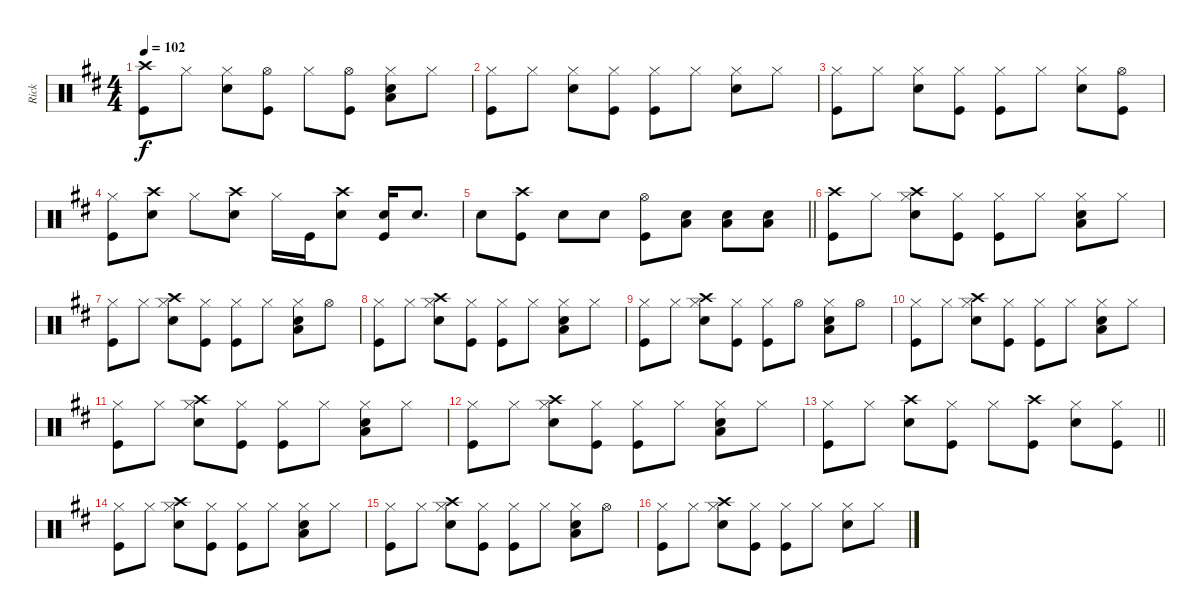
\track ("Rick" "Rick") {instrument percussion}
\staff {score}
\articulation defaults
\ts (4 4)
\tempo 102
\clef neutral
\ks d
("Crash high (hit)" "Kick (hit)").8{dy f} "Hi-Hat (closed)".8 ("Hi-Hat (closed)" "Snare (hit) 2").8 ("Hi-Hat (open)" "Kick (hit)").8 "Hi-Hat (closed)".8 ("Hi-Hat (open)" "Kick (hit)").8 ("Hi-Hat (closed)" "Snare (hit) 2" "Low Tom (hit)").8 "Hi-Hat (closed)".8 |
("Hi-Hat (closed)" "Kick (hit)").8 "Hi-Hat (closed)".8 ("Hi-Hat (closed)" "Snare (hit) 2").8 ("Hi-Hat (closed)" "Kick (hit)").8 ("Hi-Hat (closed)" "Kick (hit)").8 "Hi-Hat (closed)".8 ("Hi-Hat (closed)" "Snare (hit) 2").8 "Hi-Hat (closed)".8 |
("Hi-Hat (closed)" "Kick (hit)").8 "Hi-Hat (closed)".8 ("Hi-Hat (closed)" "Snare (hit) 2").8 ("Hi-Hat (closed)" "Kick (hit)").8 ("Hi-Hat (closed)" "Kick (hit)").8 "Hi-Hat (closed)".8 ("Hi-Hat (closed)" "Snare (hit) 2").8 ("Hi-Hat (open)" "Kick (hit)").8 |
("Hi-Hat (closed)" "Kick (hit)").8 ("Crash high (hit)" "Snare (hit) 2").8 "Hi-Hat (closed)".8 ("Crash high (hit)" "Snare (hit) 2").8 "Hi-Hat (closed)".16 "Kick (hit)".16 ("Crash high (hit)" "Snare (hit) 2").8 ("Snare (hit) 2" "Kick (hit)").16 "Snare (hit) 2".8{d} |
\barLineRight lightlight "Snare (hit) 2".8
("Crash high (hit)" "Kick (hit)").8 "Snare (hit) 2".8 "Snare (hit) 2".8 ("Hi-Hat (open)" "Kick (hit)").8 ("Snare (hit) 2" "Low Tom (hit)").8 ("Snare (hit) 2" "Low Tom (hit)").8 ("Snare (hit) 2" "Low Tom (hit)").8 |
("Crash high (hit)" "Kick (hit)").8 "Hi-Hat (closed)".8 ("Crash high (hit)" "Hi-Hat (closed)" "Snare (hit) 2").8 ("Hi-Hat (closed)" "Kick (hit)").8 ("Hi-Hat (closed)" "Kick (hit)").8 "Hi-Hat (closed)".8 ("Hi-Hat (closed)" "Snare (hit) 2" "Low Tom (hit)").8 "Hi-Hat (closed)".8 |
("Hi-Hat (closed)" "Kick (hit)").8 "Hi-Hat (closed)".8 ("Crash high (hit)" "Hi-Hat (closed)" "Snare (hit) 2").8 ("Hi-Hat (closed)" "Kick (hit)").8 ("Hi-Hat (closed)" "Kick (hit)").8 "Hi-Hat (closed)".8 ("Hi-Hat (closed)" "Snare (hit) 2" "Low Tom (hit)").8 "Hi-Hat (open)".8 |
("Hi-Hat (closed)" "Kick (hit)").8 "Hi-Hat (closed)".8 ("Crash high (hit)" "Hi-Hat (closed)" "Snare (hit) 2").8 ("Hi-Hat (closed)" "Kick (hit)").8 ("Hi-Hat (closed)" "Kick (hit)").8 "Hi-Hat (closed)".8 ("Hi-Hat (closed)" "Snare (hit) 2" "Low Tom (hit)").8 "Hi-Hat (closed)".8 |
("Hi-Hat (closed)" "Kick (hit)").8 "Hi-Hat (closed)".8 ("Crash high (hit)" "Hi-Hat (closed)" "Snare (hit) 2").8 ("Hi-Hat (closed)" "Kick (hit)").8 ("Hi-Hat (closed)" "Kick (hit)").8 "Hi-Hat (open)".8 ("Hi-Hat (closed)" "Snare (hit) 2" "Low Tom (hit)").8 "Hi-Hat (open)".8 |
("Hi-Hat (closed)" "Kick (hit)").8 "Hi-Hat (closed)".8 ("Crash high (hit)" "Hi-Hat (closed)" "Snare (hit) 2").8 ("Hi-Hat (closed)" "Kick (hit)").8 ("Hi-Hat (closed)" "Kick (hit)").8 "Hi-Hat (closed)".8 ("Hi-Hat (closed)" "Snare (hit) 2" "Low Tom (hit)").8 "Hi-Hat (closed)".8 |
("Hi-Hat (closed)" "Kick (hit)").8 "Hi-Hat (closed)".8 ("Crash high (hit)" "Hi-Hat (closed)" "Snare (hit) 2").8 ("Hi-Hat (closed)" "Kick (hit)").8 ("Hi-Hat (closed)" "Kick (hit)").8 "Hi-Hat (closed)".8 ("Hi-Hat (closed)" "Snare (hit) 2" "Low Tom (hit)").8 "Hi-Hat (closed)".8 |
("Hi-Hat (closed)" "Kick (hit)").8 "Hi-Hat (closed)".8 ("Crash high (hit)" "Hi-Hat (closed)" "Snare (hit) 2").8 ("Hi-Hat (closed)" "Kick (hit)").8 ("Hi-Hat (closed)" "Kick (hit)").8 "Hi-Hat (closed)".8 ("Hi-Hat (closed)" "Snare (hit) 2" "Low Tom (hit)").8 "Hi-Hat (closed)".8 |
\barLineRight lightlight
("Hi-Hat (closed)" "Kick (hit)").8 "Hi-Hat (closed)".8 ("Crash high (hit)" "Snare (hit) 2").8 ("Hi-Hat (closed)" "Kick (hit)").8 "Hi-Hat (closed)".8 ("Crash high (hit)" "Kick (hit)").8 ("Hi-Hat (closed)" "Snare (hit) 2").8 ("Hi-Hat (closed)" "Kick (hit)").8 |
("Hi-Hat (closed)" "Kick (hit)").8 "Hi-Hat (closed)".8 ("Crash high (hit)" "Hi-Hat (closed)" "Snare (hit) 2").8 ("Hi-Hat (closed)" "Kick (hit)").8 ("Hi-Hat (closed)" "Kick (hit)").8 "Hi-Hat (closed)".8 ("Hi-Hat (closed)" "Snare (hit) 2" "Low Tom (hit)").8 "Hi-Hat (closed)".8 |
("Hi-Hat (closed)" "Kick (hit)").8 "Hi-Hat (closed)".8 ("Crash high (hit)" "Hi-Hat (closed)" "Snare (hit) 2").8 ("Hi-Hat (closed)" "Kick (hit)").8 ("Hi-Hat (closed)" "Kick (hit)").8 "Hi-Hat (closed)".8 ("Hi-Hat (closed)" "Snare (hit) 2" "Low Tom (hit)").8 "Hi-Hat (open)".8 |
("Hi-Hat (closed)" "Kick (hit)").8 "Hi-Hat (closed)".8 ("Crash high (hit)" "Hi-Hat (closed)" "Snare (hit) 2").8 ("Hi-Hat (closed)" "Kick (hit)").8 ("Hi-Hat (closed)" "Kick (hit)").8 "Hi-Hat (closed)".8 ("Hi-Hat (closed)" "Snare (hit) 2").8 "Hi-Hat (closed)".8
